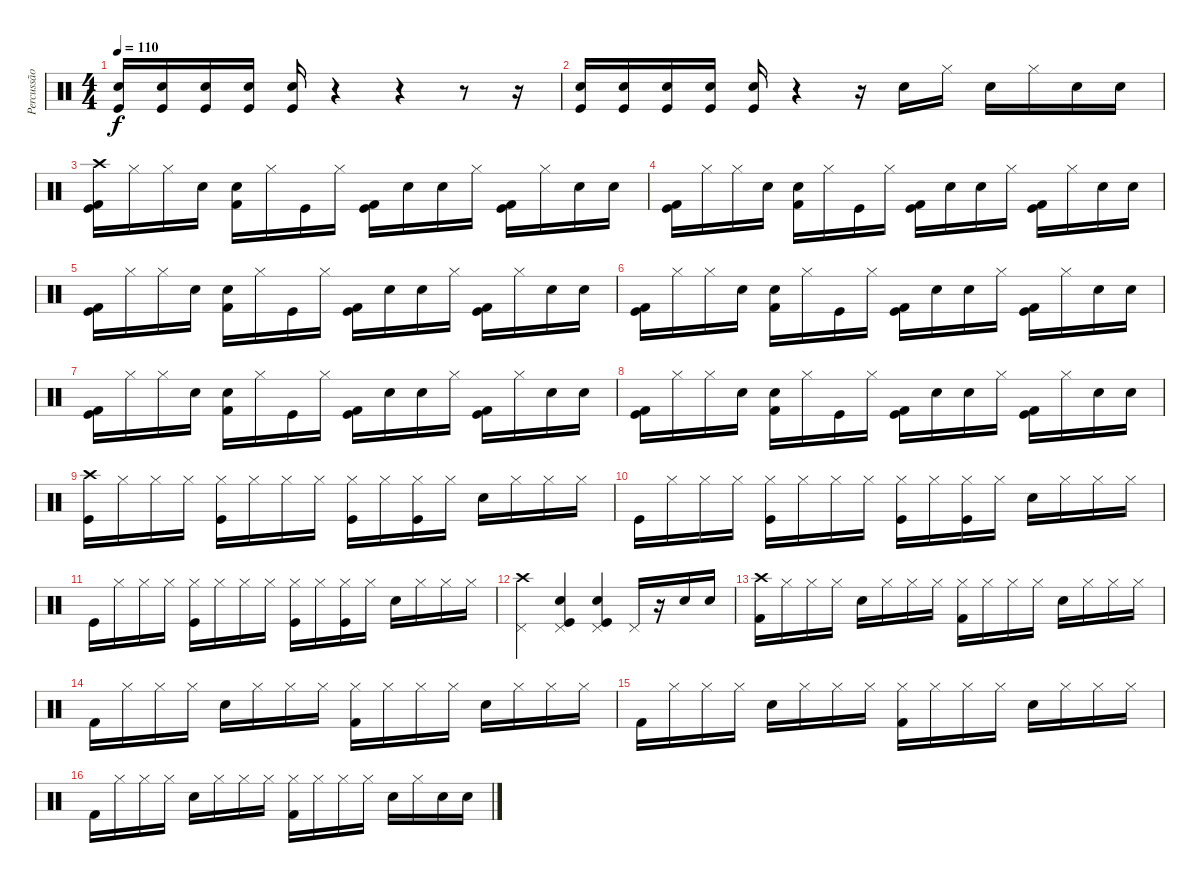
\track ("Percussão" "Percussão") {instrument percussion}
\staff {score}
\articulation defaults
\ts (4 4)
\tempo 110
\clef neutral
\ks c
("Electric Snare (hit)" "Kick (hit)").16{dy f} ("Electric Snare (hit)" "Kick (hit)").16 ("Electric Snare (hit)" "Kick (hit)").16 ("Electric Snare (hit)" "Kick (hit)").16 ("Electric Snare (hit)" "Kick (hit)").16 r.4 r.4 r.8 r.16 |
("Electric Snare (hit)" "Kick (hit)").16 ("Electric Snare (hit)" "Kick (hit)").16 ("Electric Snare (hit)" "Kick (hit)").16 ("Electric Snare (hit)" "Kick (hit)").16 ("Electric Snare (hit)" "Kick (hit)").16 r.4 r.16 "Electric Snare (hit)".16 "Hi-Hat (closed)".16 "Electric Snare (hit)".16 "Hi-Hat (closed)".16 "Electric Snare (hit)".16 "Electric Snare (hit)".16 |
("Crash high (hit)" "Kick (hit)" "Kick (hit) 2").16 "Hi-Hat (closed)".16 "Hi-Hat (closed)".16 "Electric Snare (hit)".16 ("Electric Snare (hit)" "Kick (hit) 2").16 "Hi-Hat (closed)".16 "Kick (hit)".16 "Hi-Hat (closed)".16 ("Kick (hit)" "Kick (hit) 2").16 "Electric Snare (hit)".16 "Electric Snare (hit)".16 "Hi-Hat (closed)".16 ("Kick (hit)" "Kick (hit) 2").16 "Hi-Hat (closed)".16 "Electric Snare (hit)".16 "Electric Snare (hit)".16 |
("Kick (hit)" "Kick (hit) 2").16 "Hi-Hat (closed)".16 "Hi-Hat (closed)".16 "Electric Snare (hit)".16 ("Electric Snare (hit)" "Kick (hit) 2").16 "Hi-Hat (closed)".16 "Kick (hit)".16 "Hi-Hat (closed)".16 ("Kick (hit)" "Kick (hit) 2").16 "Electric Snare (hit)".16 "Electric Snare (hit)".16 "Hi-Hat (closed)".16 ("Kick (hit)" "Kick (hit) 2").16 "Hi-Hat (closed)".16 "Electric Snare (hit)".16 "Electric Snare (hit)".16 |
("Kick (hit)" "Kick (hit) 2").16 "Hi-Hat (closed)".16 "Hi-Hat (closed)".16 "Electric Snare (hit)".16 ("Electric Snare (hit)" "Kick (hit) 2").16 "Hi-Hat (closed)".16 "Kick (hit)".16 "Hi-Hat (closed)".16 ("Kick (hit)" "Kick (hit) 2").16 "Electric Snare (hit)".16 "Electric Snare (hit)".16 "Hi-Hat (closed)".16 ("Kick (hit)" "Kick (hit) 2").16 "Hi-Hat (closed)".16 "Electric Snare (hit)".16 "Electric Snare (hit)".16 |
("Kick (hit)" "Kick (hit) 2").16 "Hi-Hat (closed)".16 "Hi-Hat (closed)".16 "Electric Snare (hit)".16 ("Electric Snare (hit)" "Kick (hit) 2").16 "Hi-Hat (closed)".16 "Kick (hit)".16 "Hi-Hat (closed)".16 ("Kick (hit)" "Kick (hit) 2").16 "Electric Snare (hit)".16 "Electric Snare (hit)".16 "Hi-Hat (closed)".16 ("Kick (hit)" "Kick (hit) 2").16 "Hi-Hat (closed)".16 "Electric Snare (hit)".16 "Electric Snare (hit)".16 |
("Kick (hit)" "Kick (hit) 2").16 "Hi-Hat (closed)".16 "Hi-Hat (closed)".16 "Electric Snare (hit)".16 ("Electric Snare (hit)" "Kick (hit) 2").16 "Hi-Hat (closed)".16 "Kick (hit)".16 "Hi-Hat (closed)".16 ("Kick (hit)" "Kick (hit) 2").16 "Electric Snare (hit)".16 "Electric Snare (hit)".16 "Hi-Hat (closed)".16 ("Kick (hit)" "Kick (hit) 2").16 "Hi-Hat (closed)".16 "Electric Snare (hit)".16 "Electric Snare (hit)".16 |
("Kick (hit)" "Kick (hit) 2").16 "Hi-Hat (closed)".16 "Hi-Hat (closed)".16 "Electric Snare (hit)".16 ("Electric Snare (hit)" "Kick (hit) 2").16 "Hi-Hat (closed)".16 "Kick (hit)".16 "Hi-Hat (closed)".16 ("Kick (hit)" "Kick (hit) 2").16 "Electric Snare (hit)".16 "Electric Snare (hit)".16 "Hi-Hat (closed)".16 ("Kick (hit)" "Kick (hit) 2").16 "Hi-Hat (closed)".16 "Electric Snare (hit)".16 "Electric Snare (hit)".16 |
("Crash high (hit)" "Kick (hit)").16 "Hi-Hat (closed)".16 "Hi-Hat (closed)".16 "Hi-Hat (closed)".16 ("Hi-Hat (closed)" "Kick (hit)").16 "Hi-Hat (closed)".16 "Hi-Hat (closed)".16 "Hi-Hat (closed)".16 ("Hi-Hat (closed)" "Kick (hit)").16 "Hi-Hat (closed)".16 ("Hi-Hat (closed)" "Kick (hit)").16 "Hi-Hat (closed)".16 "Electric Snare (hit)".16 "Hi-Hat (closed)".16 "Hi-Hat (closed)".16 "Hi-Hat (closed)".16 |
"Kick (hit)".16 "Hi-Hat (closed)".16 "Hi-Hat (closed)".16 "Hi-Hat (closed)".16 ("Hi-Hat (closed)" "Kick (hit)").16 "Hi-Hat (closed)".16 "Hi-Hat (closed)".16 "Hi-Hat (closed)".16 ("Hi-Hat (closed)" "Kick (hit)").16 "Hi-Hat (closed)".16 ("Hi-Hat (closed)" "Kick (hit)").16 "Hi-Hat (closed)".16 "Electric Snare (hit)".16 "Hi-Hat (closed)".16 "Hi-Hat (closed)".16 "Hi-Hat (closed)".16 |
"Kick (hit)".16 "Hi-Hat (closed)".16 "Hi-Hat (closed)".16 "Hi-Hat (closed)".16 ("Hi-Hat (closed)" "Kick (hit)").16 "Hi-Hat (closed)".16 "Hi-Hat (closed)".16 "Hi-Hat (closed)".16 ("Hi-Hat (closed)" "Kick (hit)").16 "Hi-Hat (closed)".16 ("Hi-Hat (closed)" "Kick (hit)").16 "Hi-Hat (closed)".16 "Electric Snare (hit)".16 "Hi-Hat (closed)".16 "Hi-Hat (closed)".16 "Hi-Hat (closed)".16 |
("Crash high (hit)" "Pedal Hi-Hat (hit)").4 ("Electric Snare (hit)" "Kick (hit)" "Pedal Hi-Hat (hit)").4 ("Electric Snare (hit)" "Kick (hit)" "Pedal Hi-Hat (hit)").4 "Pedal Hi-Hat (hit)".16 r.16 "Electric Snare (hit)".16 "Electric Snare (hit)".16 |
("Crash high (hit)" "Kick (hit) 2").16 "Hi-Hat (closed)".16 "Hi-Hat (closed)".16 "Hi-Hat (closed)".16 "Electric Snare (hit)".16 "Hi-Hat (closed)".16 "Hi-Hat (closed)".16 "Hi-Hat (closed)".16 ("Hi-Hat (closed)" "Kick (hit) 2").16 "Hi-Hat (closed)".16 "Hi-Hat (closed)".16 "Hi-Hat (closed)".16 "Electric Snare (hit)".16 "Hi-Hat (closed)".16 "Hi-Hat (closed)".16 "Hi-Hat (closed)".16 |
"Kick (hit) 2".16 "Hi-Hat (closed)".16 "Hi-Hat (closed)".16 "Hi-Hat (closed)".16 "Electric Snare (hit)".16 "Hi-Hat (closed)".16 "Hi-Hat (closed)".16 "Hi-Hat (closed)".16 ("Hi-Hat (closed)" "Kick (hit) 2").16 "Hi-Hat (closed)".16 "Hi-Hat (closed)".16 "Hi-Hat (closed)".16 "Electric Snare (hit)".16 "Hi-Hat (closed)".16 "Hi-Hat (closed)".16 "Hi-Hat (closed)".16 |
"Kick (hit) 2".16 "Hi-Hat (closed)".16 "Hi-Hat (closed)".16 "Hi-Hat (closed)".16 "Electric Snare (hit)".16 "Hi-Hat (closed)".16 "Hi-Hat (closed)".16 "Hi-Hat (closed)".16 ("Hi-Hat (closed)" "Kick (hit) 2").16 "Hi-Hat (closed)".16 "Hi-Hat (closed)".16 "Hi-Hat (closed)".16 "Electric Snare (hit)".16 "Hi-Hat (closed)".16 "Hi-Hat (closed)".16 "Hi-Hat (closed)".16 |
"Kick (hit) 2".16 "Hi-Hat (closed)".16 "Hi-Hat (closed)".16 "Hi-Hat (closed)".16 "Electric Snare (hit)".16 "Hi-Hat (closed)".16 "Hi-Hat (closed)".16 "Hi-Hat (closed)".16 ("Hi-Hat (closed)" "Kick (hit) 2").16 "Hi-Hat (closed)".16 "Hi-Hat (closed)".16 "Hi-Hat (closed)".16 "Electric Snare (hit)".16 "Hi-Hat (closed)".16 "Electric Snare (hit)".16 "Electric Snare (hit)".16
